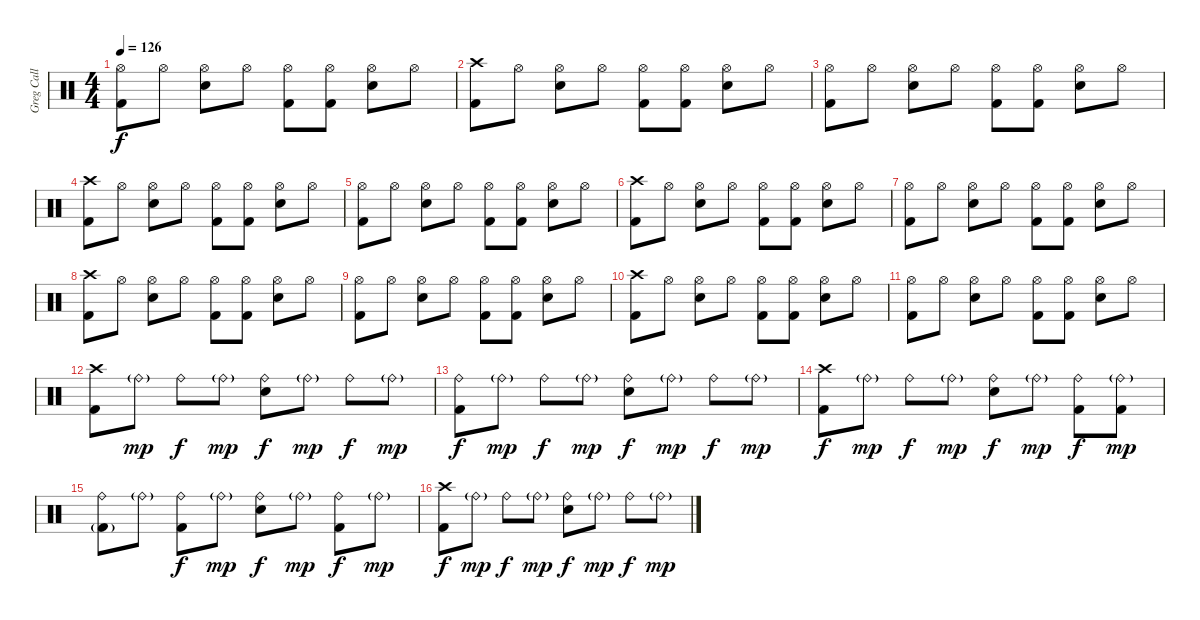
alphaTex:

\track ("Greg Call (Drums)" "Greg Call ") {instrument percussion}
\staff {score}
\articulation defaults
\ts (4 4)
\tempo 126
\clef neutral
\ks c
("Hi-Hat (open)" "Kick (hit) 2").8{dy f} "Hi-Hat (open)".8 ("Hi-Hat (open)" "Snare (hit) 2").8 "Hi-Hat (open)".8 ("Hi-Hat (open)" "Kick (hit) 2").8 ("Hi-Hat (open)" "Kick (hit) 2").8 ("Hi-Hat (open)" "Snare (hit) 2").8 "Hi-Hat (open)".8 |
("Crash high (hit)" "Kick (hit) 2").8 "Hi-Hat (open)".8 ("Hi-Hat (open)" "Snare (hit) 2").8 "Hi-Hat (open)".8 ("Hi-Hat (open)" "Kick (hit) 2").8 ("Hi-Hat (open)" "Kick (hit) 2").8 ("Hi-Hat (open)" "Snare (hit) 2").8 "Hi-Hat (open)".8 |
("Hi-Hat (open)" "Kick (hit) 2").8 "Hi-Hat (open)".8 ("Hi-Hat (open)" "Snare (hit) 2").8 "Hi-Hat (open)".8 ("Hi-Hat (open)" "Kick (hit) 2").8 ("Hi-Hat (open)" "Kick (hit) 2").8 ("Hi-Hat (open)" "Snare (hit) 2").8 "Hi-Hat (open)".8 |
("Crash high (hit)" "Kick (hit) 2").8 "Hi-Hat (open)".8 ("Hi-Hat (open)" "Snare (hit) 2").8 "Hi-Hat (open)".8 ("Hi-Hat (open)" "Kick (hit) 2").8 ("Hi-Hat (open)" "Kick (hit) 2").8 ("Hi-Hat (open)" "Snare (hit) 2").8 "Hi-Hat (open)".8 |
("Hi-Hat (open)" "Kick (hit) 2").8 "Hi-Hat (open)".8 ("Hi-Hat (open)" "Snare (hit) 2").8 "Hi-Hat (open)".8 ("Hi-Hat (open)" "Kick (hit) 2").8 ("Hi-Hat (open)" "Kick (hit) 2").8 ("Hi-Hat (open)" "Snare (hit) 2").8 "Hi-Hat (open)".8 |
("Crash high (hit)" "Kick (hit) 2").8 "Hi-Hat (open)".8 ("Hi-Hat (open)" "Snare (hit) 2").8 "Hi-Hat (open)".8 ("Hi-Hat (open)" "Kick (hit) 2").8 ("Hi-Hat (open)" "Kick (hit) 2").8 ("Hi-Hat (open)" "Snare (hit) 2").8 "Hi-Hat (open)".8 |
("Hi-Hat (open)" "Kick (hit) 2").8 "Hi-Hat (open)".8 ("Hi-Hat (open)" "Snare (hit) 2").8 "Hi-Hat (open)".8 ("Hi-Hat (open)" "Kick (hit) 2").8 ("Hi-Hat (open)" "Kick (hit) 2").8 ("Hi-Hat (open)" "Snare (hit) 2").8 "Hi-Hat (open)".8 |
("Crash high (hit)" "Kick (hit) 2").8 "Hi-Hat (open)".8 ("Hi-Hat (open)" "Snare (hit) 2").8 "Hi-Hat (open)".8 ("Hi-Hat (open)" "Kick (hit) 2").8 ("Hi-Hat (open)" "Kick (hit) 2").8 ("Hi-Hat (open)" "Snare (hit) 2").8 "Hi-Hat (open)".8 |
("Hi-Hat (open)" "Kick (hit) 2").8 "Hi-Hat (open)".8 ("Hi-Hat (open)" "Snare (hit) 2").8 "Hi-Hat (open)".8 ("Hi-Hat (open)" "Kick (hit) 2").8 ("Hi-Hat (open)" "Kick (hit) 2").8 ("Hi-Hat (open)" "Snare (hit) 2").8 "Hi-Hat (open)".8 |
("Crash high (hit)" "Kick (hit) 2").8 "Hi-Hat (open)".8 ("Hi-Hat (open)" "Snare (hit) 2").8 "Hi-Hat (open)".8 ("Hi-Hat (open)" "Kick (hit) 2").8 ("Hi-Hat (open)" "Kick (hit) 2").8 ("Hi-Hat (open)" "Snare (hit) 2").8 "Hi-Hat (open)".8 |
("Hi-Hat (open)" "Kick (hit) 2").8 "Hi-Hat (open)".8 ("Hi-Hat (open)" "Snare (hit) 2").8 "Hi-Hat (open)".8 ("Hi-Hat (open)" "Kick (hit) 2").8 ("Hi-Hat (open)" "Kick (hit) 2").8 ("Hi-Hat (open)" "Snare (hit) 2").8 "Hi-Hat (open)".8 |
("Crash high (hit)" "Kick (hit) 2").8 "Ride (bell)"{g}.8{dy mp} "Ride (bell)".8{dy f} "Ride (bell)"{g}.8{dy mp} ("Ride (bell)" "Snare (hit) 2").8{dy f} "Ride (bell)"{g}.8{dy mp} "Ride (bell)".8{dy f} "Ride (bell)"{g}.8{dy mp} |
("Ride (bell)" "Kick (hit) 2").8{dy f} "Ride (bell)"{g}.8{dy mp} "Ride (bell)".8{dy f} "Ride (bell)"{g}.8{dy mp} ("Ride (bell)" "Snare (hit) 2").8{dy f} "Ride (bell)"{g}.8{dy mp} "Ride (bell)".8{dy f} "Ride (bell)"{g}.8{dy mp} |
("Crash high (hit)" "Kick (hit) 2").8{dy f} "Ride (bell)"{g}.8{dy mp} "Ride (bell)".8{dy f} "Ride (bell)"{g}.8{dy mp} ("Ride (bell)" "Snare (hit) 2").8{dy f} "Ride (bell)"{g}.8{dy mp} ("Ride (bell)" "Kick (hit) 2").8{dy f} ("Ride (bell)"{g} "Kick (hit) 2").8{dy mp} |
("Ride (bell)" "Kick (hit) 2"{g}).8 "Ride (bell)"{g}.8 ("Ride (bell)" "Kick (hit) 2").8{dy f} "Ride (bell)"{g}.8{dy mp} ("Ride (bell)" "Snare (hit) 2").8{dy f} "Ride (bell)"{g}.8{dy mp} ("Ride (bell)" "Kick (hit) 2").8{dy f} "Ride (bell)"{g}.8{dy mp} |
("Crash high (hit)" "Kick (hit) 2").8{dy f} "Ride (bell)"{g}.8{dy mp} "Ride (bell)".8{dy f} "Ride (bell)"{g}.8{dy mp} ("Ride (bell)" "Snare (hit) 2").8{dy f} "Ride (bell)"{g}.8{dy mp} "Ride (bell)".8{dy f} "Ride (bell)"{g}.8{dy mp}
